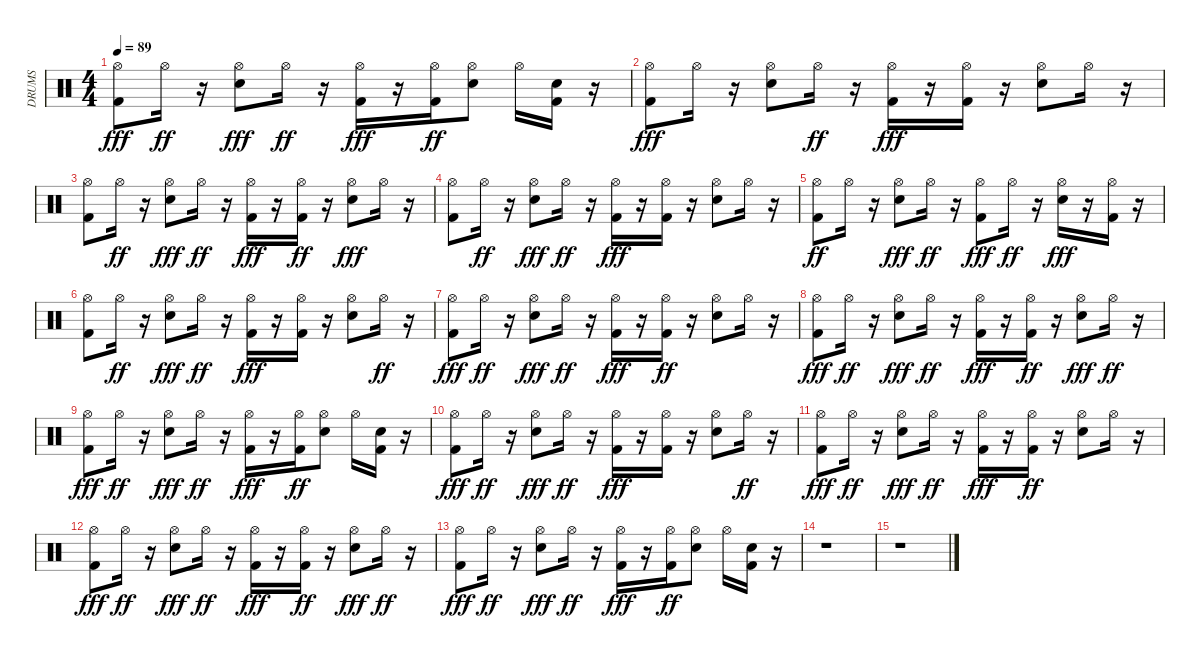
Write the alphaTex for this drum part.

\track ("DRUMS" "DRUMS") {instrument percussion}
\staff {score}
\articulation defaults
\ts (4 4)
\tempo 89
\clef neutral
\ks c
("Hi-Hat (open)" "Kick (hit) 2").8{dy fff volume 16} "Hi-Hat (open)".16{dy ff volume 16} r.16 ("Electric Snare (hit)" "Hi-Hat (open)").8{dy fff volume 16} "Hi-Hat (open)".16{dy ff volume 16} r.16 ("Hi-Hat (open)" "Kick (hit) 2").16{dy fff volume 15} r.16 ("Kick (hit) 2" "Hi-Hat (open)").16{dy ff volume 15} ("Electric Snare (hit)" "Hi-Hat (open)").8{volume 15} "Hi-Hat (open)".16{volume 15} ("Kick (hit) 2" "Snare (hit) 2").16 r.16 |
("Hi-Hat (open)" "Kick (hit) 2").8{dy fff volume 15} "Hi-Hat (open)".16{volume 15} r.16 ("Electric Snare (hit)" "Hi-Hat (open)").8{volume 14} "Hi-Hat (open)".16{dy ff volume 14} r.16 ("Hi-Hat (open)" "Kick (hit) 2").16{dy fff volume 14} r.16 ("Kick (hit) 2" "Hi-Hat (open)").16{volume 14} r.16 ("Hi-Hat (open)" "Electric Snare (hit)").8{volume 14} "Hi-Hat (open)".16{volume 14} r.16 |
("Hi-Hat (open)" "Kick (hit) 2").8{volume 14} "Hi-Hat (open)".16{dy ff volume 14} r.16 ("Hi-Hat (open)" "Electric Snare (hit)").8{dy fff volume 13} "Hi-Hat (open)".16{dy ff volume 13} r.16 ("Hi-Hat (open)" "Kick (hit) 2").16{dy fff volume 13} r.16 ("Kick (hit) 2" "Hi-Hat (open)").16{dy ff volume 13} r.16 ("Electric Snare (hit)" "Hi-Hat (open)").8{dy fff volume 13} "Hi-Hat (open)".16{volume 13} r.16 |
("Hi-Hat (open)" "Kick (hit) 2").8{volume 12} "Hi-Hat (open)".16{dy ff volume 12} r.16 ("Hi-Hat (open)" "Electric Snare (hit)").8{dy fff volume 12} "Hi-Hat (open)".16{dy ff volume 12} r.16 ("Hi-Hat (open)" "Kick (hit) 2").16{dy fff volume 12} r.16 ("Kick (hit) 2" "Hi-Hat (open)").16{volume 12} r.16 ("Hi-Hat (open)" "Electric Snare (hit)").8{volume 12} "Hi-Hat (open)".16{volume 12} r.16 |
("Hi-Hat (open)" "Kick (hit) 2").8{dy ff volume 11} "Hi-Hat (open)".16{volume 11} r.16 ("Electric Snare (hit)" "Hi-Hat (open)").8{dy fff volume 11} "Hi-Hat (open)".16{dy ff volume 11} r.16 ("Hi-Hat (open)" "Kick (hit) 2").8{dy fff volume 11} "Hi-Hat (open)".16{dy ff volume 11} r.16 ("Electric Snare (hit)" "Hi-Hat (open)").16{dy fff volume 10} r.16 ("Hi-Hat (open)" "Kick (hit) 2").16{volume 10} r.16 |
("Hi-Hat (open)" "Kick (hit) 2").8{volume 10} "Hi-Hat (open)".16{dy ff volume 10} r.16 ("Hi-Hat (open)" "Electric Snare (hit)").8{dy fff volume 10} "Hi-Hat (open)".16{dy ff volume 10} r.16 ("Hi-Hat (open)" "Kick (hit) 2").16{dy fff volume 10} r.16 ("Hi-Hat (open)" "Kick (hit) 2").16{volume 10} r.16 ("Hi-Hat (open)" "Electric Snare (hit)").8{volume 9} "Hi-Hat (open)".16{dy ff volume 9} r.16 |
("Hi-Hat (open)" "Kick (hit) 2").8{dy fff volume 9} "Hi-Hat (open)".16{dy ff volume 9} r.16 ("Electric Snare (hit)" "Hi-Hat (open)").8{dy fff volume 9} "Hi-Hat (open)".16{dy ff volume 9} r.16 ("Hi-Hat (open)" "Kick (hit) 2").16{dy fff volume 9} r.16 ("Hi-Hat (open)" "Kick (hit) 2").16{dy ff volume 8} r.16 ("Electric Snare (hit)" "Hi-Hat (open)").8{volume 8} "Hi-Hat (open)".16{volume 8} r.16 |
("Hi-Hat (open)" "Kick (hit) 2").8{dy fff volume 8} "Hi-Hat (open)".16{dy ff volume 8} r.16 ("Electric Snare (hit)" "Hi-Hat (open)").8{dy fff volume 8} "Hi-Hat (open)".16{dy ff volume 8} r.16 ("Hi-Hat (open)" "Kick (hit) 2").16{dy fff volume 7} r.16 ("Hi-Hat (open)" "Kick (hit) 2").16{dy ff volume 7} r.16 ("Electric Snare (hit)" "Hi-Hat (open)").8{dy fff volume 7} "Hi-Hat (open)".16{dy ff volume 7} r.16 |
("Hi-Hat (open)" "Kick (hit) 2").8{dy fff volume 7} "Hi-Hat (open)".16{dy ff volume 7} r.16 ("Electric Snare (hit)" "Hi-Hat (open)").8{dy fff volume 7} "Hi-Hat (open)".16{dy ff volume 6} r.16 ("Hi-Hat (open)" "Kick (hit) 2").16{dy fff volume 6} r.16 ("Kick (hit) 2" "Hi-Hat (open)").16{dy ff volume 6} ("Electric Snare (hit)" "Hi-Hat (open)").8 "Hi-Hat (open)".16{volume 6} ("Kick (hit) 2" "Snare (hit) 2").16{volume 6} r.16 |
("Hi-Hat (open)" "Kick (hit) 2").8{dy fff volume 6} "Hi-Hat (open)".16{dy ff volume 6} r.16 ("Hi-Hat (open)" "Electric Snare (hit)").8{dy fff volume 6} "Hi-Hat (open)".16{dy ff volume 5} r.16 ("Hi-Hat (open)" "Kick (hit) 2").16{dy fff volume 5} r.16 ("Hi-Hat (open)" "Kick (hit) 2").16{volume 5} r.16 ("Hi-Hat (open)" "Electric Snare (hit)").8{volume 5} "Hi-Hat (open)".16{dy ff volume 5} r.16 |
("Hi-Hat (open)" "Kick (hit) 2").8{dy fff volume 5} "Hi-Hat (open)".16{dy ff volume 4} r.16 ("Electric Snare (hit)" "Hi-Hat (open)").8{dy fff volume 4} "Hi-Hat (open)".16{dy ff volume 4} r.16 ("Hi-Hat (open)" "Kick (hit) 2").16{dy fff volume 4} r.16 ("Hi-Hat (open)" "Kick (hit) 2").16{dy ff volume 4} r.16 ("Electric Snare (hit)" "Hi-Hat (open)").8{volume 4} "Hi-Hat (open)".16{volume 4} r.16 |
("Hi-Hat (open)" "Kick (hit) 2").8{dy fff volume 4} "Hi-Hat (open)".16{dy ff volume 3} r.16 ("Electric Snare (hit)" "Hi-Hat (open)").8{dy fff volume 3} "Hi-Hat (open)".16{dy ff volume 3} r.16 ("Hi-Hat (open)" "Kick (hit) 2").16{dy fff volume 3} r.16 ("Hi-Hat (open)" "Kick (hit) 2").16{dy ff volume 3} r.16 ("Electric Snare (hit)" "Hi-Hat (open)").8{dy fff volume 3} "Hi-Hat (open)".16{dy ff volume 2} r.16 |
("Hi-Hat (open)" "Kick (hit) 2").8{dy fff volume 2} "Hi-Hat (open)".16{dy ff volume 2} r.16 ("Electric Snare (hit)" "Hi-Hat (open)").8{dy fff volume 2} "Hi-Hat (open)".16{dy ff volume 2} r.16 ("Hi-Hat (open)" "Kick (hit) 2").16{dy fff volume 2} r.16 ("Kick (hit) 2" "Hi-Hat (open)").16{dy ff volume 2} ("Electric Snare (hit)" "Hi-Hat (open)").8{volume 2} "Hi-Hat (open)".16{volume 1} ("Kick (hit) 2" "Snare (hit) 2").16 r.16 |
r.1 |
r.1
